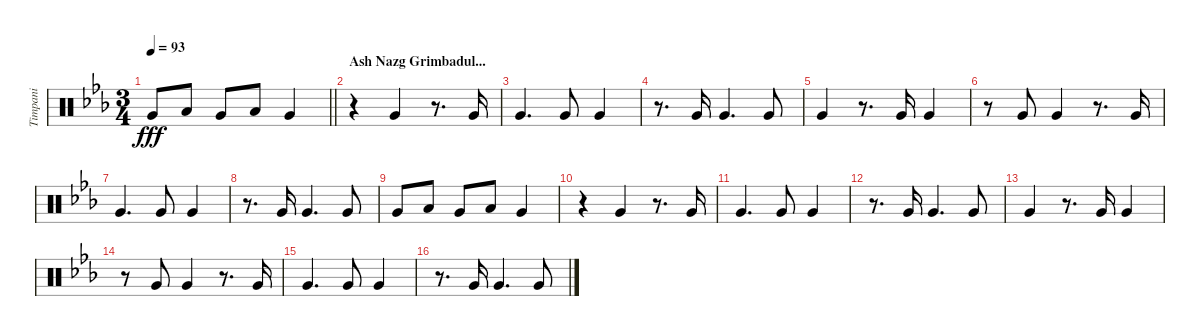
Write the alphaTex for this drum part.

\track ("Timpani" "Timpani") {instrument percussion}
\staff {score}
\articulation defaults
\ts (3 4)
\tempo 93
\clef neutral
\barLineRight lightlight
\ks cminor "Very Low Tom (hit)".8{dy fff} "Low Floor Tom (hit)".8 "Very Low Tom (hit)".8 "Low Floor Tom (hit)".8 "Very Low Tom (hit)".4
|
\section ("" "Ash Nazg Grimbadul...")
r.4 "Very Low Tom (hit)".4 r.8{d} "Very Low Tom (hit)".16 |
"Very Low Tom (hit)".4{d} "Very Low Tom (hit)".8 "Very Low Tom (hit)".4 |
r.8{d} "Very Low Tom (hit)".16 "Very Low Tom (hit)".4{d} "Very Low Tom (hit)".8 |
"Very Low Tom (hit)".4 r.8{d} "Very Low Tom (hit)".16 "Very Low Tom (hit)".4 |
r.8 "Very Low Tom (hit)".8 "Very Low Tom (hit)".4 r.8{d} "Very Low Tom (hit)".16 |
"Very Low Tom (hit)".4{d} "Very Low Tom (hit)".8 "Very Low Tom (hit)".4 |
r.8{d} "Very Low Tom (hit)".16 "Very Low Tom (hit)".4{d} "Very Low Tom (hit)".8 |
"Very Low Tom (hit)".8 "Low Floor Tom (hit)".8 "Very Low Tom (hit)".8 "Low Floor Tom (hit)".8 "Very Low Tom (hit)".4 |
r.4 "Very Low Tom (hit)".4 r.8{d} "Very Low Tom (hit)".16 |
"Very Low Tom (hit)".4{d} "Very Low Tom (hit)".8 "Very Low Tom (hit)".4 |
r.8{d} "Very Low Tom (hit)".16 "Very Low Tom (hit)".4{d} "Very Low Tom (hit)".8 |
"Very Low Tom (hit)".4 r.8{d} "Very Low Tom (hit)".16 "Very Low Tom (hit)".4 |
r.8 "Very Low Tom (hit)".8 "Very Low Tom (hit)".4 r.8{d} "Very Low Tom (hit)".16 |
"Very Low Tom (hit)".4{d} "Very Low Tom (hit)".8 "Very Low Tom (hit)".4 |
r.8{d} "Very Low Tom (hit)".16 "Very Low Tom (hit)".4{d} "Very Low Tom (hit)".8
